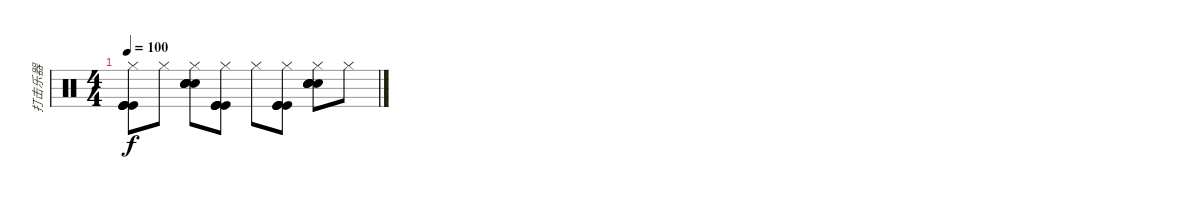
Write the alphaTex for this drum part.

\track ("打击乐器" "打击乐器") {instrument percussion}
\staff {score}
\articulation defaults
\ts (4 4)
\tempo 100
\clef neutral
\ks c
("Hi-Hat (closed)" "Kick (hit)" "Kick (hit)" "Kick (hit)" "Kick (hit)").8{dy f} "Hi-Hat (closed)".8 ("Hi-Hat (closed)" "Snare (hit) 2" "Snare (hit) 2" "Snare (hit) 2" "Snare (hit) 2").8 ("Hi-Hat (closed)" "Kick (hit)" "Kick (hit)" "Kick (hit)" "Kick (hit)").8 "Hi-Hat (closed)".8 ("Hi-Hat (closed)" "Kick (hit)" "Kick (hit)" "Kick (hit)" "Kick (hit)").8 ("Hi-Hat (closed)" "Snare (hit) 2" "Snare (hit) 2" "Snare (hit) 2" "Snare (hit) 2").8 "Hi-Hat (closed)".8
